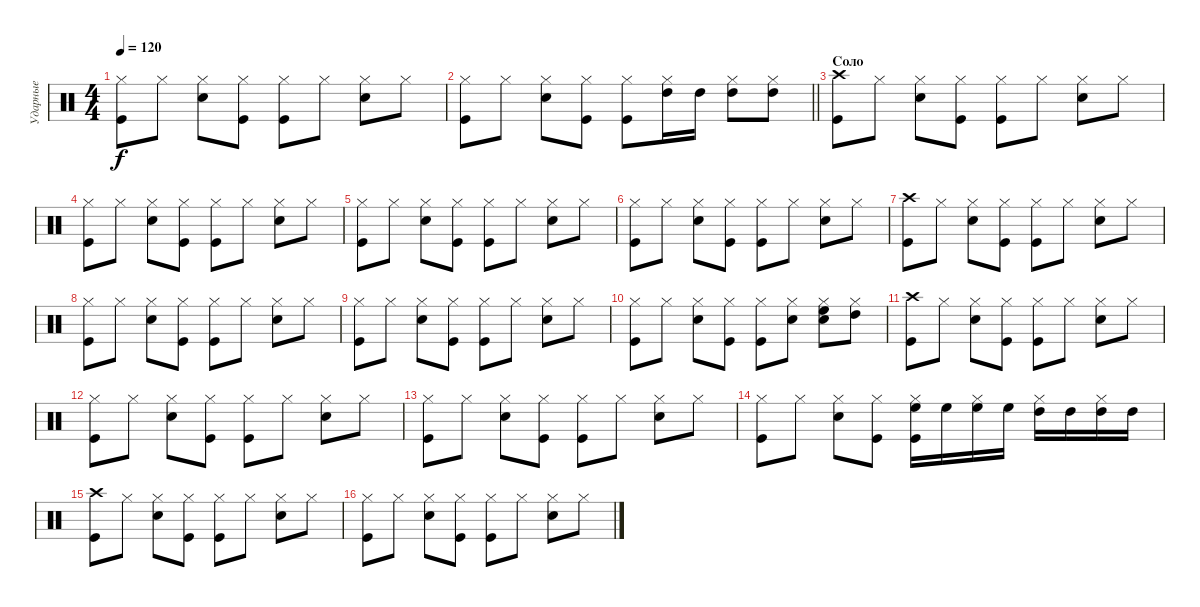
\track ("Ударные" "Ударные") {instrument percussion}
\staff {score}
\articulation defaults
\ts (4 4)
\tempo 120
\clef neutral
\ks c
("Hi-Hat (closed)" "Kick (hit)").8{dy f} "Hi-Hat (closed)".8 ("Hi-Hat (closed)" "Snare (hit) 2").8 ("Hi-Hat (closed)" "Kick (hit)").8 ("Hi-Hat (closed)" "Kick (hit)").8 "Hi-Hat (closed)".8 ("Hi-Hat (closed)" "Snare (hit) 2").8 "Hi-Hat (closed)".8 |
\barLineRight lightlight
("Hi-Hat (closed)" "Kick (hit)").8 "Hi-Hat (closed)".8 ("Hi-Hat (closed)" "Snare (hit) 2").8 ("Hi-Hat (closed)" "Kick (hit)").8 ("Hi-Hat (closed)" "Kick (hit)").8 ("Hi-Hat (closed)" "High Tom (hit)").16 "High Tom (hit)".16 ("Hi-Hat (closed)" "High Tom (hit)").8 ("Hi-Hat (closed)" "High Tom (hit)").8 |
\section ("" "Соло")
("Crash high (hit)" "Kick (hit)").8 "Hi-Hat (closed)".8 ("Hi-Hat (closed)" "Snare (hit) 2").8 ("Hi-Hat (closed)" "Kick (hit)").8 ("Hi-Hat (closed)" "Kick (hit)").8 "Hi-Hat (closed)".8 ("Hi-Hat (closed)" "Snare (hit) 2").8 "Hi-Hat (closed)".8 |
("Hi-Hat (closed)" "Kick (hit)").8 "Hi-Hat (closed)".8 ("Hi-Hat (closed)" "Snare (hit) 2").8 ("Hi-Hat (closed)" "Kick (hit)").8 ("Hi-Hat (closed)" "Kick (hit)").8 "Hi-Hat (closed)".8 ("Hi-Hat (closed)" "Snare (hit) 2").8 "Hi-Hat (closed)".8 |
("Hi-Hat (closed)" "Kick (hit)").8 "Hi-Hat (closed)".8 ("Hi-Hat (closed)" "Snare (hit) 2").8 ("Hi-Hat (closed)" "Kick (hit)").8 ("Hi-Hat (closed)" "Kick (hit)").8 "Hi-Hat (closed)".8 ("Hi-Hat (closed)" "Snare (hit) 2").8 "Hi-Hat (closed)".8 |
("Hi-Hat (closed)" "Kick (hit)").8 "Hi-Hat (closed)".8 ("Hi-Hat (closed)" "Snare (hit) 2").8 ("Hi-Hat (closed)" "Kick (hit)").8 ("Hi-Hat (closed)" "Kick (hit)").8 "Hi-Hat (closed)".8 ("Hi-Hat (closed)" "Snare (hit) 2").8 "Hi-Hat (closed)".8 |
("Crash high (hit)" "Kick (hit)").8 "Hi-Hat (closed)".8 ("Hi-Hat (closed)" "Snare (hit) 2").8 ("Hi-Hat (closed)" "Kick (hit)").8 ("Hi-Hat (closed)" "Kick (hit)").8 "Hi-Hat (closed)".8 ("Hi-Hat (closed)" "Snare (hit) 2").8 "Hi-Hat (closed)".8 |
("Hi-Hat (closed)" "Kick (hit)").8 "Hi-Hat (closed)".8 ("Hi-Hat (closed)" "Snare (hit) 2").8 ("Hi-Hat (closed)" "Kick (hit)").8 ("Hi-Hat (closed)" "Kick (hit)").8 "Hi-Hat (closed)".8 ("Hi-Hat (closed)" "Snare (hit) 2").8 "Hi-Hat (closed)".8 |
("Hi-Hat (closed)" "Kick (hit)").8 "Hi-Hat (closed)".8 ("Hi-Hat (closed)" "Snare (hit) 2").8 ("Hi-Hat (closed)" "Kick (hit)").8 ("Hi-Hat (closed)" "Kick (hit)").8 "Hi-Hat (closed)".8 ("Hi-Hat (closed)" "Snare (hit) 2").8 "Hi-Hat (closed)".8 |
("Hi-Hat (closed)" "Kick (hit)").8 "Hi-Hat (closed)".8 ("Hi-Hat (closed)" "Snare (hit) 2").8 ("Hi-Hat (closed)" "Kick (hit)").8 ("Hi-Hat (closed)" "Kick (hit)").8 ("Hi-Hat (closed)" "Snare (hit) 2").8 ("Hi-Hat (closed)" "High Floor Tom (hit)" "Snare (hit) 2").8 ("Hi-Hat (closed)" "High Tom (hit)").8 |
("Crash high (hit)" "Kick (hit)").8 "Hi-Hat (closed)".8 ("Hi-Hat (closed)" "Snare (hit) 2").8 ("Hi-Hat (closed)" "Kick (hit)").8 ("Hi-Hat (closed)" "Kick (hit)").8 "Hi-Hat (closed)".8 ("Hi-Hat (closed)" "Snare (hit) 2").8 "Hi-Hat (closed)".8 |
("Hi-Hat (closed)" "Kick (hit)").8 "Hi-Hat (closed)".8 ("Hi-Hat (closed)" "Snare (hit) 2").8 ("Hi-Hat (closed)" "Kick (hit)").8 ("Hi-Hat (closed)" "Kick (hit)").8 "Hi-Hat (closed)".8 ("Hi-Hat (closed)" "Snare (hit) 2").8 "Hi-Hat (closed)".8 |
("Hi-Hat (closed)" "Kick (hit)").8 "Hi-Hat (closed)".8 ("Hi-Hat (closed)" "Snare (hit) 2").8 ("Hi-Hat (closed)" "Kick (hit)").8 ("Hi-Hat (closed)" "Kick (hit)").8 "Hi-Hat (closed)".8 ("Hi-Hat (closed)" "Snare (hit) 2").8 "Hi-Hat (closed)".8 |
("Hi-Hat (closed)" "Kick (hit)").8 "Hi-Hat (closed)".8 ("Hi-Hat (closed)" "Snare (hit) 2").8 ("Hi-Hat (closed)" "Kick (hit)").8 ("Hi-Hat (closed)" "High Floor Tom (hit)" "Kick (hit)").16 "High Floor Tom (hit)".16 ("Hi-Hat (closed)" "High Floor Tom (hit)").16 "High Floor Tom (hit)".16 ("Hi-Hat (closed)" "High Tom (hit)").16 "High Tom (hit)".16 ("Hi-Hat (closed)" "High Tom (hit)").16 "High Tom (hit)".16 |
("Crash high (hit)" "Kick (hit)").8 "Hi-Hat (closed)".8 ("Hi-Hat (closed)" "Snare (hit) 2").8 ("Hi-Hat (closed)" "Kick (hit)").8 ("Hi-Hat (closed)" "Kick (hit)").8 "Hi-Hat (closed)".8 ("Hi-Hat (closed)" "Snare (hit) 2").8 "Hi-Hat (closed)".8 |
("Hi-Hat (closed)" "Kick (hit)").8 "Hi-Hat (closed)".8 ("Hi-Hat (closed)" "Snare (hit) 2").8 ("Hi-Hat (closed)" "Kick (hit)").8 ("Hi-Hat (closed)" "Kick (hit)").8 "Hi-Hat (closed)".8 ("Hi-Hat (closed)" "Snare (hit) 2").8 "Hi-Hat (closed)".8
